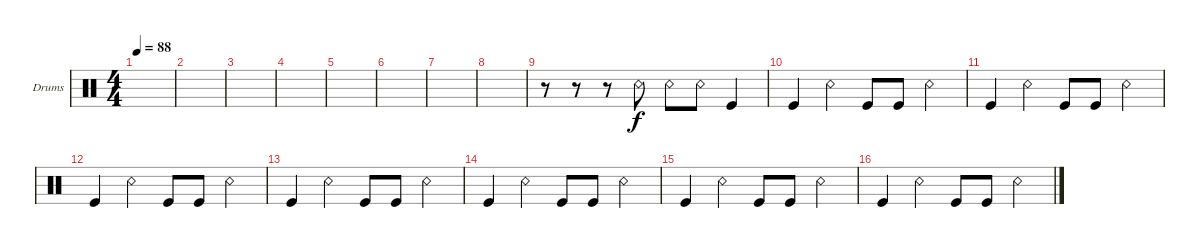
\bracketExtendMode groupsimilarinstruments
\firstSystemTrackNameOrientation horizontal
\otherSystemsTrackNameOrientation horizontal
\track ("Drumkit" "Drums") {instrument percussion}
\staff {score}
\articulation defaults
\ts (4 4)
\tempo 88
\clef neutral
\scale
0.474178
\ks c
|
\scale
0.262911 |
\scale
0.262911 |
\scale
0.333333 |
\scale
0.333333 |
\scale
0.333333 |
\scale
0.333333 |
\scale
0.333333 |
\scale
0.333333 r.8 r.8 r.8 "Snare (rim shot)".8 "Snare (rim shot)".8 "Snare (rim shot)".8 "Kick (hit)".4 |
\scale
0.333333 "Kick (hit)".4 "Snare (rim shot)".4 "Kick (hit)".8 "Kick (hit)".8 "Snare (rim shot)".4 |
\scale
0.333333 "Kick (hit)".4 "Snare (rim shot)".4 "Kick (hit)".8 "Kick (hit)".8 "Snare (rim shot)".4 |
\scale
0.333333 "Kick (hit)".4 "Snare (rim shot)".4 "Kick (hit)".8 "Kick (hit)".8 "Snare (rim shot)".4 |
\scale
0.333333 "Kick (hit)".4 "Snare (rim shot)".4 "Kick (hit)".8 "Kick (hit)".8 "Snare (rim shot)".4 |
\scale
0.333333 "Kick (hit)".4 "Snare (rim shot)".4 "Kick (hit)".8 "Kick (hit)".8 "Snare (rim shot)".4 |
\scale
0.333333 "Kick (hit)".4 "Snare (rim shot)".4 "Kick (hit)".8 "Kick (hit)".8 "Snare (rim shot)".4 |
\scale
0.333333 "Kick (hit)".4 "Snare (rim shot)".4 "Kick (hit)".8 "Kick (hit)".8 "Snare (rim shot)".4
